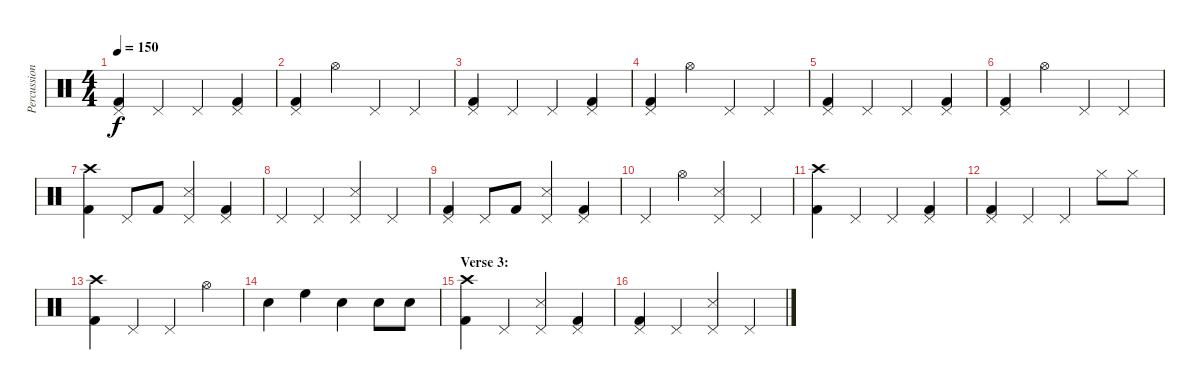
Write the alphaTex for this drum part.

\track ("Percussion" "Percussion") {instrument percussion}
\staff {score}
\articulation defaults
\ts (4 4)
\tempo 150
\clef neutral
\ks c
("Pedal Hi-Hat (hit)" "Kick (hit) 2").4{dy f} "Pedal Hi-Hat (hit)".4 "Pedal Hi-Hat (hit)".4 ("Pedal Hi-Hat (hit)" "Kick (hit) 2").4 |
("Pedal Hi-Hat (hit)" "Kick (hit) 2").4 "Hi-Hat (open)".4 "Pedal Hi-Hat (hit)".4 "Pedal Hi-Hat (hit)".4 |
("Pedal Hi-Hat (hit)" "Kick (hit) 2").4 "Pedal Hi-Hat (hit)".4 "Pedal Hi-Hat (hit)".4 ("Pedal Hi-Hat (hit)" "Kick (hit) 2").4 |
("Pedal Hi-Hat (hit)" "Kick (hit) 2").4 "Hi-Hat (open)".4 "Pedal Hi-Hat (hit)".4 "Pedal Hi-Hat (hit)".4 |
("Pedal Hi-Hat (hit)" "Kick (hit) 2").4 "Pedal Hi-Hat (hit)".4 "Pedal Hi-Hat (hit)".4 ("Pedal Hi-Hat (hit)" "Kick (hit) 2").4 |
("Pedal Hi-Hat (hit)" "Kick (hit) 2").4 "Hi-Hat (open)".4 "Pedal Hi-Hat (hit)".4 "Pedal Hi-Hat (hit)".4 |
("Crash high (hit)" "Kick (hit) 2").4 "Pedal Hi-Hat (hit)".8 "Kick (hit) 2".8 ("Pedal Hi-Hat (hit)" "Snare (side stick) 3").4 ("Pedal Hi-Hat (hit)" "Kick (hit) 2").4 |
"Pedal Hi-Hat (hit)".4 "Pedal Hi-Hat (hit)".4 ("Pedal Hi-Hat (hit)" "Snare (side stick) 3").4 "Pedal Hi-Hat (hit)".4 |
("Pedal Hi-Hat (hit)" "Kick (hit) 2").4 "Pedal Hi-Hat (hit)".8 "Kick (hit) 2".8 ("Pedal Hi-Hat (hit)" "Snare (side stick) 3").4 ("Pedal Hi-Hat (hit)" "Kick (hit) 2").4 |
"Pedal Hi-Hat (hit)".4 "Hi-Hat (open)".4 ("Pedal Hi-Hat (hit)" "Snare (side stick) 3").4 "Pedal Hi-Hat (hit)".4 |
("Crash high (hit)" "Kick (hit) 2").4 "Pedal Hi-Hat (hit)".4 "Pedal Hi-Hat (hit)".4 ("Pedal Hi-Hat (hit)" "Kick (hit) 2").4 |
("Pedal Hi-Hat (hit)" "Kick (hit) 2").4 "Pedal Hi-Hat (hit)".4 "Pedal Hi-Hat (hit)".4 "Hi-Hat (closed)".8 "Hi-Hat (closed)".8 |
("Crash high (hit)" "Kick (hit) 2").4 "Pedal Hi-Hat (hit)".4 "Pedal Hi-Hat (hit)".4 "Hi-Hat (open)".4 |
"Electric Snare (hit)".4 "High Floor Tom (hit)".4 "Electric Snare (hit)".4 "Electric Snare (hit)".8 "Electric Snare (hit)".8 |
\section ("" "Verse 3:")
("Crash high (hit)" "Kick (hit) 2").4 "Pedal Hi-Hat (hit)".4 ("Pedal Hi-Hat (hit)" "Snare (side stick) 3").4 ("Pedal Hi-Hat (hit)" "Kick (hit) 2").4 |
("Pedal Hi-Hat (hit)" "Kick (hit) 2").4 "Pedal Hi-Hat (hit)".4 ("Pedal Hi-Hat (hit)" "Snare (side stick) 3").4 "Pedal Hi-Hat (hit)".4
